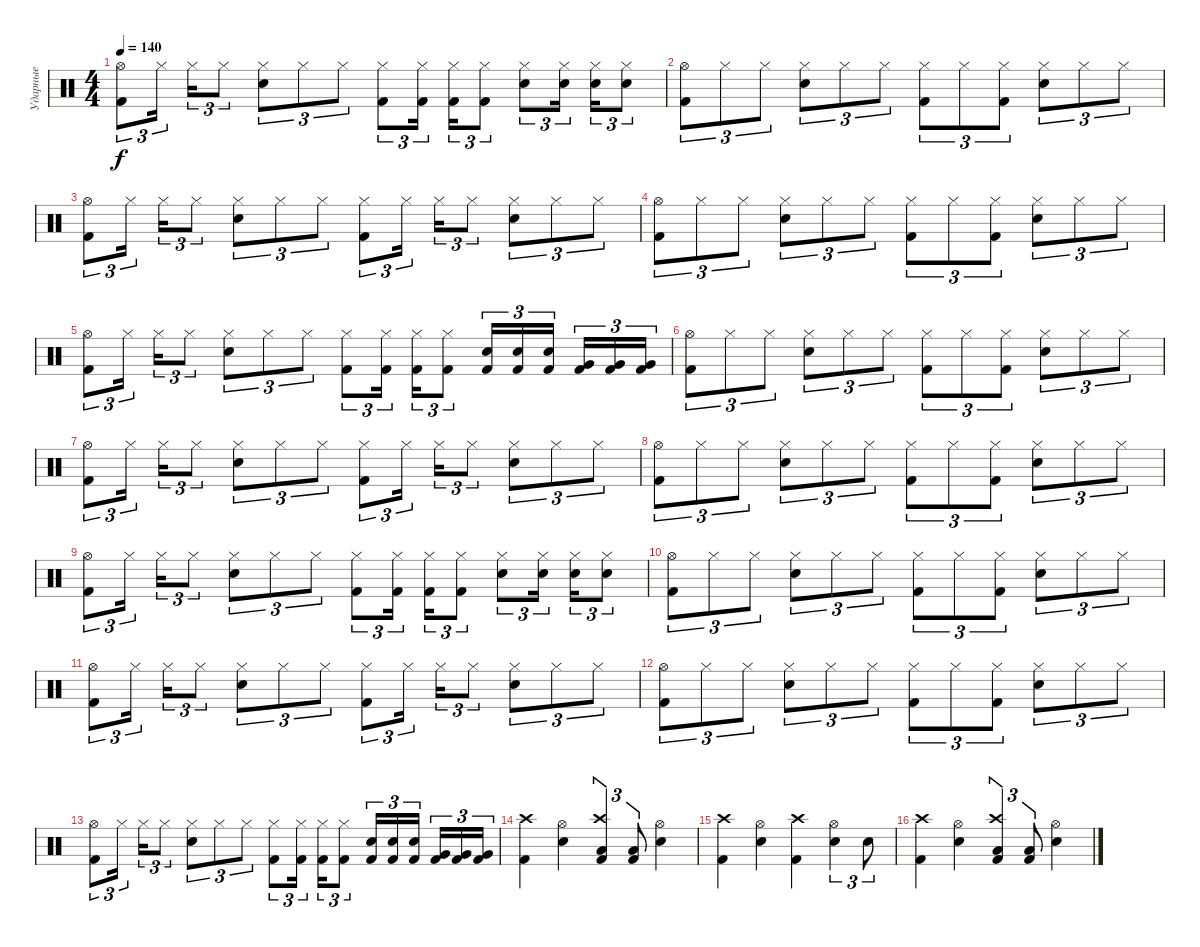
\track ("Ударные" "Ударные") {instrument percussion}
\staff {score}
\articulation defaults
\ts (4 4)
\tempo 140
\clef neutral
\ks c
("Hi-Hat (open)" "Kick (hit) 2").8{tu (3 2) dy f} "Hi-Hat (closed)".16{tu (3 2) beam splitsecondary} "Hi-Hat (closed)".16{tu (3 2)} "Hi-Hat (closed)".8{tu (3 2)} ("Hi-Hat (closed)" "Snare (hit) 2").8{tu (3 2)} "Hi-Hat (closed)".8{tu (3 2)} "Hi-Hat (closed)".8{tu (3 2)} ("Hi-Hat (closed)" "Kick (hit) 2").8{tu (3 2)} ("Hi-Hat (closed)" "Kick (hit) 2").16{tu (3 2) beam splitsecondary} ("Hi-Hat (closed)" "Kick (hit) 2").16{tu (3 2)} ("Hi-Hat (closed)" "Kick (hit) 2").8{tu (3 2)} ("Hi-Hat (closed)" "Snare (hit) 2").8{tu (3 2)} ("Hi-Hat (closed)" "Snare (hit) 2").16{tu (3 2) beam splitsecondary} ("Hi-Hat (closed)" "Snare (hit) 2").16{tu (3 2)} ("Hi-Hat (closed)" "Snare (hit) 2").8{tu (3 2)} |
("Hi-Hat (open)" "Kick (hit) 2").8{tu (3 2)} "Hi-Hat (closed)".8{tu (3 2)} "Hi-Hat (closed)".8{tu (3 2)} ("Hi-Hat (closed)" "Snare (hit) 2").8{tu (3 2)} "Hi-Hat (closed)".8{tu (3 2)} "Hi-Hat (closed)".8{tu (3 2)} ("Hi-Hat (closed)" "Kick (hit) 2").8{tu (3 2)} "Hi-Hat (closed)".8{tu (3 2)} ("Hi-Hat (closed)" "Kick (hit) 2").8{tu (3 2)} ("Hi-Hat (closed)" "Snare (hit) 2").8{tu (3 2)} "Hi-Hat (closed)".8{tu (3 2)} "Hi-Hat (closed)".8{tu (3 2)} |
("Hi-Hat (open)" "Kick (hit) 2").8{tu (3 2)} "Hi-Hat (closed)".16{tu (3 2) beam splitsecondary} "Hi-Hat (closed)".16{tu (3 2)} "Hi-Hat (closed)".8{tu (3 2)} ("Hi-Hat (closed)" "Snare (hit) 2").8{tu (3 2)} "Hi-Hat (closed)".8{tu (3 2)} "Hi-Hat (closed)".8{tu (3 2)} ("Hi-Hat (closed)" "Kick (hit) 2").8{tu (3 2)} "Hi-Hat (closed)".16{tu (3 2) beam splitsecondary} "Hi-Hat (closed)".16{tu (3 2)} "Hi-Hat (closed)".8{tu (3 2)} ("Hi-Hat (closed)" "Snare (hit) 2").8{tu (3 2)} "Hi-Hat (closed)".8{tu (3 2)} "Hi-Hat (closed)".8{tu (3 2)} |
("Hi-Hat (open)" "Kick (hit) 2").8{tu (3 2)} "Hi-Hat (closed)".8{tu (3 2)} "Hi-Hat (closed)".8{tu (3 2)} ("Hi-Hat (closed)" "Snare (hit) 2").8{tu (3 2)} "Hi-Hat (closed)".8{tu (3 2)} "Hi-Hat (closed)".8{tu (3 2)} ("Hi-Hat (closed)" "Kick (hit) 2").8{tu (3 2)} "Hi-Hat (closed)".8{tu (3 2)} ("Hi-Hat (closed)" "Kick (hit) 2").8{tu (3 2)} ("Hi-Hat (closed)" "Snare (hit) 2").8{tu (3 2)} "Hi-Hat (closed)".8{tu (3 2)} "Hi-Hat (closed)".8{tu (3 2)} |
("Hi-Hat (open)" "Kick (hit) 2").8{tu (3 2)} "Hi-Hat (closed)".16{tu (3 2) beam splitsecondary} "Hi-Hat (closed)".16{tu (3 2)} "Hi-Hat (closed)".8{tu (3 2)} ("Hi-Hat (closed)" "Snare (hit) 2").8{tu (3 2)} "Hi-Hat (closed)".8{tu (3 2)} "Hi-Hat (closed)".8{tu (3 2)} ("Hi-Hat (closed)" "Kick (hit) 2").8{tu (3 2)} ("Hi-Hat (closed)" "Kick (hit) 2").16{tu (3 2) beam splitsecondary} ("Hi-Hat (closed)" "Kick (hit) 2").16{tu (3 2)} ("Hi-Hat (closed)" "Kick (hit) 2").8{tu (3 2)} ("Snare (hit) 2" "Kick (hit) 2").16{tu (3 2)} ("Snare (hit) 2" "Kick (hit) 2").16{tu (3 2)} ("Snare (hit) 2" "Kick (hit) 2").16{tu (3 2) beam splitsecondary} ("Very Low Tom (hit)" "Kick (hit) 2").16{tu (3 2)} ("Very Low Tom (hit)" "Kick (hit) 2").16{tu (3 2)} ("Very Low Tom (hit)" "Kick (hit) 2").16{tu (3 2)} |
("Hi-Hat (open)" "Kick (hit) 2").8{tu (3 2)} "Hi-Hat (closed)".8{tu (3 2)} "Hi-Hat (closed)".8{tu (3 2)} ("Hi-Hat (closed)" "Snare (hit) 2").8{tu (3 2)} "Hi-Hat (closed)".8{tu (3 2)} "Hi-Hat (closed)".8{tu (3 2)} ("Hi-Hat (closed)" "Kick (hit) 2").8{tu (3 2)} "Hi-Hat (closed)".8{tu (3 2)} ("Hi-Hat (closed)" "Kick (hit) 2").8{tu (3 2)} ("Hi-Hat (closed)" "Snare (hit) 2").8{tu (3 2)} "Hi-Hat (closed)".8{tu (3 2)} "Hi-Hat (closed)".8{tu (3 2)} |
("Hi-Hat (open)" "Kick (hit) 2").8{tu (3 2)} "Hi-Hat (closed)".16{tu (3 2) beam splitsecondary} "Hi-Hat (closed)".16{tu (3 2)} "Hi-Hat (closed)".8{tu (3 2)} ("Hi-Hat (closed)" "Snare (hit) 2").8{tu (3 2)} "Hi-Hat (closed)".8{tu (3 2)} "Hi-Hat (closed)".8{tu (3 2)} ("Hi-Hat (closed)" "Kick (hit) 2").8{tu (3 2)} "Hi-Hat (closed)".16{tu (3 2) beam splitsecondary} "Hi-Hat (closed)".16{tu (3 2)} "Hi-Hat (closed)".8{tu (3 2)} ("Hi-Hat (closed)" "Snare (hit) 2").8{tu (3 2)} "Hi-Hat (closed)".8{tu (3 2)} "Hi-Hat (closed)".8{tu (3 2)} |
("Hi-Hat (open)" "Kick (hit) 2").8{tu (3 2)} "Hi-Hat (closed)".8{tu (3 2)} "Hi-Hat (closed)".8{tu (3 2)} ("Hi-Hat (closed)" "Snare (hit) 2").8{tu (3 2)} "Hi-Hat (closed)".8{tu (3 2)} "Hi-Hat (closed)".8{tu (3 2)} ("Hi-Hat (closed)" "Kick (hit) 2").8{tu (3 2)} "Hi-Hat (closed)".8{tu (3 2)} ("Hi-Hat (closed)" "Kick (hit) 2").8{tu (3 2)} ("Hi-Hat (closed)" "Snare (hit) 2").8{tu (3 2)} "Hi-Hat (closed)".8{tu (3 2)} "Hi-Hat (closed)".8{tu (3 2)} |
("Hi-Hat (open)" "Kick (hit) 2").8{tu (3 2)} "Hi-Hat (closed)".16{tu (3 2) beam splitsecondary} "Hi-Hat (closed)".16{tu (3 2)} "Hi-Hat (closed)".8{tu (3 2)} ("Hi-Hat (closed)" "Snare (hit) 2").8{tu (3 2)} "Hi-Hat (closed)".8{tu (3 2)} "Hi-Hat (closed)".8{tu (3 2)} ("Hi-Hat (closed)" "Kick (hit) 2").8{tu (3 2)} ("Hi-Hat (closed)" "Kick (hit) 2").16{tu (3 2) beam splitsecondary} ("Hi-Hat (closed)" "Kick (hit) 2").16{tu (3 2)} ("Hi-Hat (closed)" "Kick (hit) 2").8{tu (3 2)} ("Hi-Hat (closed)" "Snare (hit) 2").8{tu (3 2)} ("Hi-Hat (closed)" "Snare (hit) 2").16{tu (3 2) beam splitsecondary} ("Hi-Hat (closed)" "Snare (hit) 2").16{tu (3 2)} ("Hi-Hat (closed)" "Snare (hit) 2").8{tu (3 2)} |
("Hi-Hat (open)" "Kick (hit) 2").8{tu (3 2)} "Hi-Hat (closed)".8{tu (3 2)} "Hi-Hat (closed)".8{tu (3 2)} ("Hi-Hat (closed)" "Snare (hit) 2").8{tu (3 2)} "Hi-Hat (closed)".8{tu (3 2)} "Hi-Hat (closed)".8{tu (3 2)} ("Hi-Hat (closed)" "Kick (hit) 2").8{tu (3 2)} "Hi-Hat (closed)".8{tu (3 2)} ("Hi-Hat (closed)" "Kick (hit) 2").8{tu (3 2)} ("Hi-Hat (closed)" "Snare (hit) 2").8{tu (3 2)} "Hi-Hat (closed)".8{tu (3 2)} "Hi-Hat (closed)".8{tu (3 2)} |
("Hi-Hat (open)" "Kick (hit) 2").8{tu (3 2)} "Hi-Hat (closed)".16{tu (3 2) beam splitsecondary} "Hi-Hat (closed)".16{tu (3 2)} "Hi-Hat (closed)".8{tu (3 2)} ("Hi-Hat (closed)" "Snare (hit) 2").8{tu (3 2)} "Hi-Hat (closed)".8{tu (3 2)} "Hi-Hat (closed)".8{tu (3 2)} ("Hi-Hat (closed)" "Kick (hit) 2").8{tu (3 2)} "Hi-Hat (closed)".16{tu (3 2) beam splitsecondary} "Hi-Hat (closed)".16{tu (3 2)} "Hi-Hat (closed)".8{tu (3 2)} ("Hi-Hat (closed)" "Snare (hit) 2").8{tu (3 2)} "Hi-Hat (closed)".8{tu (3 2)} "Hi-Hat (closed)".8{tu (3 2)} |
("Hi-Hat (open)" "Kick (hit) 2").8{tu (3 2)} "Hi-Hat (closed)".8{tu (3 2)} "Hi-Hat (closed)".8{tu (3 2)} ("Hi-Hat (closed)" "Snare (hit) 2").8{tu (3 2)} "Hi-Hat (closed)".8{tu (3 2)} "Hi-Hat (closed)".8{tu (3 2)} ("Hi-Hat (closed)" "Kick (hit) 2").8{tu (3 2)} "Hi-Hat (closed)".8{tu (3 2)} ("Hi-Hat (closed)" "Kick (hit) 2").8{tu (3 2)} ("Hi-Hat (closed)" "Snare (hit) 2").8{tu (3 2)} "Hi-Hat (closed)".8{tu (3 2)} "Hi-Hat (closed)".8{tu (3 2)} |
("Hi-Hat (open)" "Kick (hit) 2").8{tu (3 2)} "Hi-Hat (closed)".16{tu (3 2) beam splitsecondary} "Hi-Hat (closed)".16{tu (3 2)} "Hi-Hat (closed)".8{tu (3 2)} ("Hi-Hat (closed)" "Snare (hit) 2").8{tu (3 2)} "Hi-Hat (closed)".8{tu (3 2)} "Hi-Hat (closed)".8{tu (3 2)} ("Hi-Hat (closed)" "Kick (hit) 2").8{tu (3 2)} ("Hi-Hat (closed)" "Kick (hit) 2").16{tu (3 2) beam splitsecondary} ("Hi-Hat (closed)" "Kick (hit) 2").16{tu (3 2)} ("Hi-Hat (closed)" "Kick (hit) 2").8{tu (3 2)} ("Snare (hit) 2" "Kick (hit) 2").16{tu (3 2)} ("Snare (hit) 2" "Kick (hit) 2").16{tu (3 2)} ("Snare (hit) 2" "Kick (hit) 2").16{tu (3 2) beam splitsecondary} ("Very Low Tom (hit)" "Kick (hit) 2").16{tu (3 2)} ("Very Low Tom (hit)" "Kick (hit) 2").16{tu (3 2)} ("Very Low Tom (hit)" "Kick (hit) 2").16{tu (3 2)} |
("Crash high (hit)" "Kick (hit) 2").4 ("Hi-Hat (open)" "Snare (hit) 2").4 ("Crash high (hit)" "Low Tom (hit)" "Kick (hit) 2").4{tu (3 2)} ("Low Tom (hit)" "Kick (hit) 2").8{tu (3 2)} ("Hi-Hat (open)" "Snare (hit) 2").4 |
("Crash high (hit)" "Kick (hit) 2").4 ("Hi-Hat (open)" "Snare (hit) 2").4 ("Crash high (hit)" "Kick (hit) 2").4 ("Hi-Hat (open)" "Snare (hit) 2").4{tu (3 2)} "Snare (hit) 2".8{tu (3 2)} |
("Crash high (hit)" "Kick (hit) 2").4 ("Hi-Hat (open)" "Snare (hit) 2").4 ("Crash high (hit)" "Low Tom (hit)" "Kick (hit) 2").4{tu (3 2)} ("Low Tom (hit)" "Kick (hit) 2").8{tu (3 2)} ("Hi-Hat (open)" "Snare (hit) 2").4
